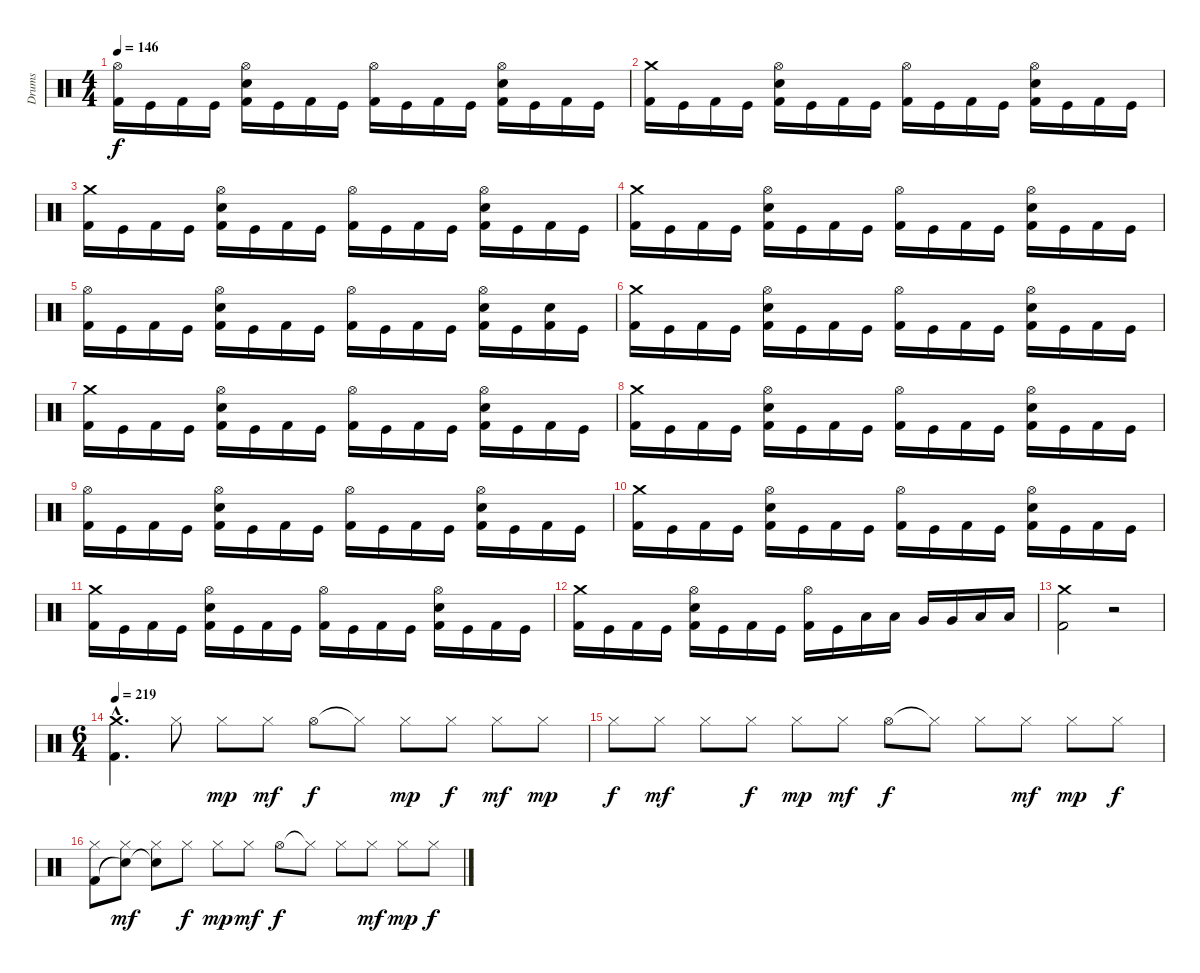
\track ("Drums" "Drums") {instrument percussion}
\staff {score}
\articulation defaults
\ts (4 4)
\tempo 146
\clef neutral
\ks c
("Hi-Hat (open)" "Kick (hit) 2").16{dy f} "Kick (hit)".16 "Kick (hit) 2".16 "Kick (hit)".16 ("Hi-Hat (open)" "Snare (hit) 2" "Kick (hit) 2").16 "Kick (hit)".16 "Kick (hit) 2".16 "Kick (hit)".16 ("Hi-Hat (open)" "Kick (hit) 2").16 "Kick (hit)".16 "Kick (hit) 2".16 "Kick (hit)".16 ("Hi-Hat (open)" "Snare (hit) 2" "Kick (hit) 2").16 "Kick (hit)".16 "Kick (hit) 2".16 "Kick (hit)".16 |
("Crash medium (hit)" "Kick (hit) 2").16 "Kick (hit)".16 "Kick (hit) 2".16 "Kick (hit)".16 ("Hi-Hat (open)" "Snare (hit) 2" "Kick (hit) 2").16 "Kick (hit)".16 "Kick (hit) 2".16 "Kick (hit)".16 ("Hi-Hat (open)" "Kick (hit) 2").16 "Kick (hit)".16 "Kick (hit) 2".16 "Kick (hit)".16 ("Hi-Hat (open)" "Snare (hit) 2" "Kick (hit) 2").16 "Kick (hit)".16 "Kick (hit) 2".16 "Kick (hit)".16 |
("Crash medium (hit)" "Kick (hit) 2").16 "Kick (hit)".16 "Kick (hit) 2".16 "Kick (hit)".16 ("Hi-Hat (open)" "Snare (hit) 2" "Kick (hit) 2").16 "Kick (hit)".16 "Kick (hit) 2".16 "Kick (hit)".16 ("Hi-Hat (open)" "Kick (hit) 2").16 "Kick (hit)".16 "Kick (hit) 2".16 "Kick (hit)".16 ("Hi-Hat (open)" "Snare (hit) 2" "Kick (hit) 2").16 "Kick (hit)".16 "Kick (hit) 2".16 "Kick (hit)".16 |
("Crash medium (hit)" "Kick (hit) 2").16 "Kick (hit)".16 "Kick (hit) 2".16 "Kick (hit)".16 ("Hi-Hat (open)" "Snare (hit) 2" "Kick (hit) 2").16 "Kick (hit)".16 "Kick (hit) 2".16 "Kick (hit)".16 ("Hi-Hat (open)" "Kick (hit) 2").16 "Kick (hit)".16 "Kick (hit) 2".16 "Kick (hit)".16 ("Hi-Hat (open)" "Snare (hit) 2" "Kick (hit) 2").16 "Kick (hit)".16 "Kick (hit) 2".16 "Kick (hit)".16 |
("Hi-Hat (open)" "Kick (hit) 2").16 "Kick (hit)".16 "Kick (hit) 2".16 "Kick (hit)".16 ("Hi-Hat (open)" "Snare (hit) 2" "Kick (hit) 2").16 "Kick (hit)".16 "Kick (hit) 2".16 "Kick (hit)".16 ("Hi-Hat (open)" "Kick (hit) 2").16 "Kick (hit)".16 "Kick (hit) 2".16 "Kick (hit)".16 ("Hi-Hat (open)" "Snare (hit) 2" "Kick (hit) 2").16 "Kick (hit)".16 ("Snare (hit) 2" "Kick (hit) 2").16 "Kick (hit)".16 |
("Crash medium (hit)" "Kick (hit) 2").16 "Kick (hit)".16 "Kick (hit) 2".16 "Kick (hit)".16 ("Hi-Hat (open)" "Snare (hit) 2" "Kick (hit) 2").16 "Kick (hit)".16 "Kick (hit) 2".16 "Kick (hit)".16 ("Hi-Hat (open)" "Kick (hit) 2").16 "Kick (hit)".16 "Kick (hit) 2".16 "Kick (hit)".16 ("Hi-Hat (open)" "Snare (hit) 2" "Kick (hit) 2").16 "Kick (hit)".16 "Kick (hit) 2".16 "Kick (hit)".16 |
("Crash medium (hit)" "Kick (hit) 2").16 "Kick (hit)".16 "Kick (hit) 2".16 "Kick (hit)".16 ("Hi-Hat (open)" "Snare (hit) 2" "Kick (hit) 2").16 "Kick (hit)".16 "Kick (hit) 2".16 "Kick (hit)".16 ("Hi-Hat (open)" "Kick (hit) 2").16 "Kick (hit)".16 "Kick (hit) 2".16 "Kick (hit)".16 ("Hi-Hat (open)" "Snare (hit) 2" "Kick (hit) 2").16 "Kick (hit)".16 "Kick (hit) 2".16 "Kick (hit)".16 |
("Crash medium (hit)" "Kick (hit) 2").16 "Kick (hit)".16 "Kick (hit) 2".16 "Kick (hit)".16 ("Hi-Hat (open)" "Snare (hit) 2" "Kick (hit) 2").16 "Kick (hit)".16 "Kick (hit) 2".16 "Kick (hit)".16 ("Hi-Hat (open)" "Kick (hit) 2").16 "Kick (hit)".16 "Kick (hit) 2".16 "Kick (hit)".16 ("Hi-Hat (open)" "Snare (hit) 2" "Kick (hit) 2").16 "Kick (hit)".16 "Kick (hit) 2".16 "Kick (hit)".16 |
("Hi-Hat (open)" "Kick (hit) 2").16 "Kick (hit)".16 "Kick (hit) 2".16 "Kick (hit)".16 ("Hi-Hat (open)" "Snare (hit) 2" "Kick (hit) 2").16 "Kick (hit)".16 "Kick (hit) 2".16 "Kick (hit)".16 ("Hi-Hat (open)" "Kick (hit) 2").16 "Kick (hit)".16 "Kick (hit) 2".16 "Kick (hit)".16 ("Hi-Hat (open)" "Snare (hit) 2" "Kick (hit) 2").16 "Kick (hit)".16 "Kick (hit) 2".16 "Kick (hit)".16 |
("Crash medium (hit)" "Kick (hit) 2").16 "Kick (hit)".16 "Kick (hit) 2".16 "Kick (hit)".16 ("Hi-Hat (open)" "Snare (hit) 2" "Kick (hit) 2").16 "Kick (hit)".16 "Kick (hit) 2".16 "Kick (hit)".16 ("Hi-Hat (open)" "Kick (hit) 2").16 "Kick (hit)".16 "Kick (hit) 2".16 "Kick (hit)".16 ("Hi-Hat (open)" "Snare (hit) 2" "Kick (hit) 2").16 "Kick (hit)".16 "Kick (hit) 2".16 "Kick (hit)".16 |
("Crash medium (hit)" "Kick (hit) 2").16 "Kick (hit)".16 "Kick (hit) 2".16 "Kick (hit)".16 ("Hi-Hat (open)" "Snare (hit) 2" "Kick (hit) 2").16 "Kick (hit)".16 "Kick (hit) 2".16 "Kick (hit)".16 ("Hi-Hat (open)" "Kick (hit) 2").16 "Kick (hit)".16 "Kick (hit) 2".16 "Kick (hit)".16 ("Hi-Hat (open)" "Snare (hit) 2" "Kick (hit) 2").16 "Kick (hit)".16 "Kick (hit) 2".16 "Kick (hit)".16 |
("Crash medium (hit)" "Kick (hit) 2").16 "Kick (hit)".16 "Kick (hit) 2".16 "Kick (hit)".16 ("Hi-Hat (open)" "Snare (hit) 2" "Kick (hit) 2").16 "Kick (hit)".16 "Kick (hit) 2".16 "Kick (hit)".16 ("Hi-Hat (open)" "Kick (hit) 2").16 "Kick (hit)".16 "Low Tom (hit)".16 "Low Tom (hit)".16 "Very Low Tom (hit)".16 "Very Low Tom (hit)".16 "Low Floor Tom (hit)".16 "Low Floor Tom (hit)".16 |
("Crash medium (hit)" "Kick (hit) 2").2 r.2 |
\ts (6 4)
\tempo 219
("Crash medium (hit)"{hac} "Kick (hit) 2"{hac}).4{d} "Hi-Hat (closed)".8 "Hi-Hat (closed)".8{dy mp} "Hi-Hat (closed)".8{dy mf} "Hi-Hat (open)".8{dy f} "Hi-Hat (closed)"{t}.8 "Hi-Hat (closed)".8{dy mp} "Hi-Hat (closed)".8{dy f} "Hi-Hat (closed)".8{dy mf} "Hi-Hat (closed)".8{dy mp} |
"Hi-Hat (closed)".8{dy f} "Hi-Hat (closed)".8{dy mf} "Hi-Hat (closed)".8 "Hi-Hat (closed)".8{dy f} "Hi-Hat (closed)".8{dy mp} "Hi-Hat (closed)".8{dy mf} "Hi-Hat (open)".8{dy f} "Hi-Hat (closed)"{t}.8 "Hi-Hat (closed)".8 "Hi-Hat (closed)".8{dy mf} "Hi-Hat (closed)".8{dy mp} "Hi-Hat (closed)".8{dy f} |
("Hi-Hat (closed)" "Kick (hit) 2").8 ("Hi-Hat (closed)" "Snare (hit)"{t}).8{dy mf} ("Hi-Hat (closed)" "Snare (hit)"{t}).8 "Hi-Hat (closed)".8{dy f} "Hi-Hat (closed)".8{dy mp} "Hi-Hat (closed)".8{dy mf} "Hi-Hat (open)".8{dy f} "Hi-Hat (closed)"{t}.8 "Hi-Hat (closed)".8 "Hi-Hat (closed)".8{dy mf} "Hi-Hat (closed)".8{dy mp} "Hi-Hat (closed)".8{dy f}
